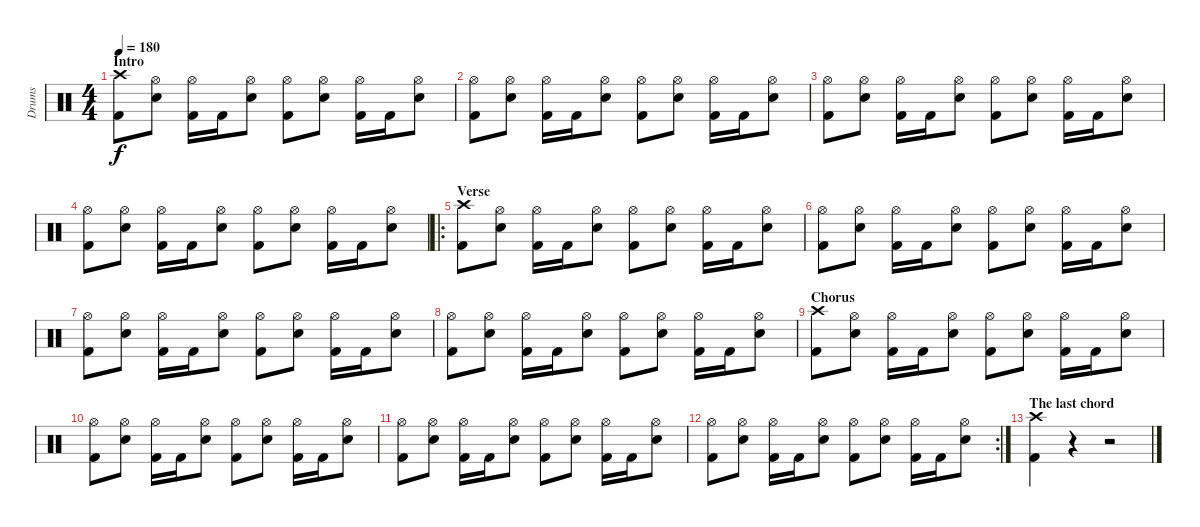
\track ("Drums" "Drums") {instrument percussion}
\staff {score}
\articulation defaults
\ts (4 4)
\section ("" "Intro")
\tempo 180
\clef neutral
\ks c
("Crash high (hit)" "Kick (hit) 2").8{dy f} ("Hi-Hat (open)" "Electric Snare (hit)").8 ("Hi-Hat (open)" "Kick (hit) 2").16 "Kick (hit) 2".16 ("Hi-Hat (open)" "Electric Snare (hit)").8 ("Hi-Hat (open)" "Kick (hit) 2").8 ("Hi-Hat (open)" "Electric Snare (hit)").8 ("Hi-Hat (open)" "Kick (hit) 2").16 "Kick (hit) 2".16 ("Hi-Hat (open)" "Electric Snare (hit)").8 |
("Hi-Hat (open)" "Kick (hit) 2").8 ("Hi-Hat (open)" "Electric Snare (hit)").8 ("Hi-Hat (open)" "Kick (hit) 2").16 "Kick (hit) 2".16 ("Hi-Hat (open)" "Electric Snare (hit)").8 ("Hi-Hat (open)" "Kick (hit) 2").8 ("Hi-Hat (open)" "Electric Snare (hit)").8 ("Hi-Hat (open)" "Kick (hit) 2").16 "Kick (hit) 2".16 ("Hi-Hat (open)" "Electric Snare (hit)").8 |
("Hi-Hat (open)" "Kick (hit) 2").8 ("Hi-Hat (open)" "Electric Snare (hit)").8 ("Hi-Hat (open)" "Kick (hit) 2").16 "Kick (hit) 2".16 ("Hi-Hat (open)" "Electric Snare (hit)").8 ("Hi-Hat (open)" "Kick (hit) 2").8 ("Hi-Hat (open)" "Electric Snare (hit)").8 ("Hi-Hat (open)" "Kick (hit) 2").16 "Kick (hit) 2".16 ("Hi-Hat (open)" "Electric Snare (hit)").8 |
("Hi-Hat (open)" "Kick (hit) 2").8 ("Hi-Hat (open)" "Electric Snare (hit)").8 ("Hi-Hat (open)" "Kick (hit) 2").16 "Kick (hit) 2".16 ("Hi-Hat (open)" "Electric Snare (hit)").8 ("Hi-Hat (open)" "Kick (hit) 2").8 ("Hi-Hat (open)" "Electric Snare (hit)").8 ("Hi-Hat (open)" "Kick (hit) 2").16 "Kick (hit) 2".16 ("Hi-Hat (open)" "Electric Snare (hit)").8 |
\ro
\section ("" "Verse")
("Crash high (hit)" "Kick (hit) 2").8 ("Hi-Hat (open)" "Electric Snare (hit)").8 ("Hi-Hat (open)" "Kick (hit) 2").16 "Kick (hit) 2".16 ("Hi-Hat (open)" "Electric Snare (hit)").8 ("Hi-Hat (open)" "Kick (hit) 2").8 ("Hi-Hat (open)" "Electric Snare (hit)").8 ("Hi-Hat (open)" "Kick (hit) 2").16 "Kick (hit) 2".16 ("Hi-Hat (open)" "Electric Snare (hit)").8 |
("Hi-Hat (open)" "Kick (hit) 2").8 ("Hi-Hat (open)" "Electric Snare (hit)").8 ("Hi-Hat (open)" "Kick (hit) 2").16 "Kick (hit) 2".16 ("Hi-Hat (open)" "Electric Snare (hit)").8 ("Hi-Hat (open)" "Kick (hit) 2").8 ("Hi-Hat (open)" "Electric Snare (hit)").8 ("Hi-Hat (open)" "Kick (hit) 2").16 "Kick (hit) 2".16 ("Hi-Hat (open)" "Electric Snare (hit)").8 |
("Hi-Hat (open)" "Kick (hit) 2").8 ("Hi-Hat (open)" "Electric Snare (hit)").8 ("Hi-Hat (open)" "Kick (hit) 2").16 "Kick (hit) 2".16 ("Hi-Hat (open)" "Electric Snare (hit)").8 ("Hi-Hat (open)" "Kick (hit) 2").8 ("Hi-Hat (open)" "Electric Snare (hit)").8 ("Hi-Hat (open)" "Kick (hit) 2").16 "Kick (hit) 2".16 ("Hi-Hat (open)" "Electric Snare (hit)").8 |
("Hi-Hat (open)" "Kick (hit) 2").8 ("Hi-Hat (open)" "Electric Snare (hit)").8 ("Hi-Hat (open)" "Kick (hit) 2").16 "Kick (hit) 2".16 ("Hi-Hat (open)" "Electric Snare (hit)").8 ("Hi-Hat (open)" "Kick (hit) 2").8 ("Hi-Hat (open)" "Electric Snare (hit)").8 ("Hi-Hat (open)" "Kick (hit) 2").16 "Kick (hit) 2".16 ("Hi-Hat (open)" "Electric Snare (hit)").8 |
\section ("" "Chorus")
("Crash high (hit)" "Kick (hit) 2").8 ("Hi-Hat (open)" "Electric Snare (hit)").8 ("Hi-Hat (open)" "Kick (hit) 2").16 "Kick (hit) 2".16 ("Hi-Hat (open)" "Electric Snare (hit)").8 ("Hi-Hat (open)" "Kick (hit) 2").8 ("Hi-Hat (open)" "Electric Snare (hit)").8 ("Hi-Hat (open)" "Kick (hit) 2").16 "Kick (hit) 2".16 ("Hi-Hat (open)" "Electric Snare (hit)").8 |
("Hi-Hat (open)" "Kick (hit) 2").8 ("Hi-Hat (open)" "Electric Snare (hit)").8 ("Hi-Hat (open)" "Kick (hit) 2").16 "Kick (hit) 2".16 ("Hi-Hat (open)" "Electric Snare (hit)").8 ("Hi-Hat (open)" "Kick (hit) 2").8 ("Hi-Hat (open)" "Electric Snare (hit)").8 ("Hi-Hat (open)" "Kick (hit) 2").16 "Kick (hit) 2".16 ("Hi-Hat (open)" "Electric Snare (hit)").8 |
("Hi-Hat (open)" "Kick (hit) 2").8 ("Hi-Hat (open)" "Electric Snare (hit)").8 ("Hi-Hat (open)" "Kick (hit) 2").16 "Kick (hit) 2".16 ("Hi-Hat (open)" "Electric Snare (hit)").8 ("Hi-Hat (open)" "Kick (hit) 2").8 ("Hi-Hat (open)" "Electric Snare (hit)").8 ("Hi-Hat (open)" "Kick (hit) 2").16 "Kick (hit) 2".16 ("Hi-Hat (open)" "Electric Snare (hit)").8 |
\rc 2
("Hi-Hat (open)" "Kick (hit) 2").8 ("Hi-Hat (open)" "Electric Snare (hit)").8 ("Hi-Hat (open)" "Kick (hit) 2").16 "Kick (hit) 2".16 ("Hi-Hat (open)" "Electric Snare (hit)").8 ("Hi-Hat (open)" "Kick (hit) 2").8 ("Hi-Hat (open)" "Electric Snare (hit)").8 ("Hi-Hat (open)" "Kick (hit) 2").16 "Kick (hit) 2".16 ("Hi-Hat (open)" "Electric Snare (hit)").8 |
\section ("" "The last chord")
("Crash high (hit)" "Kick (hit) 2").4 r.4 r.2
